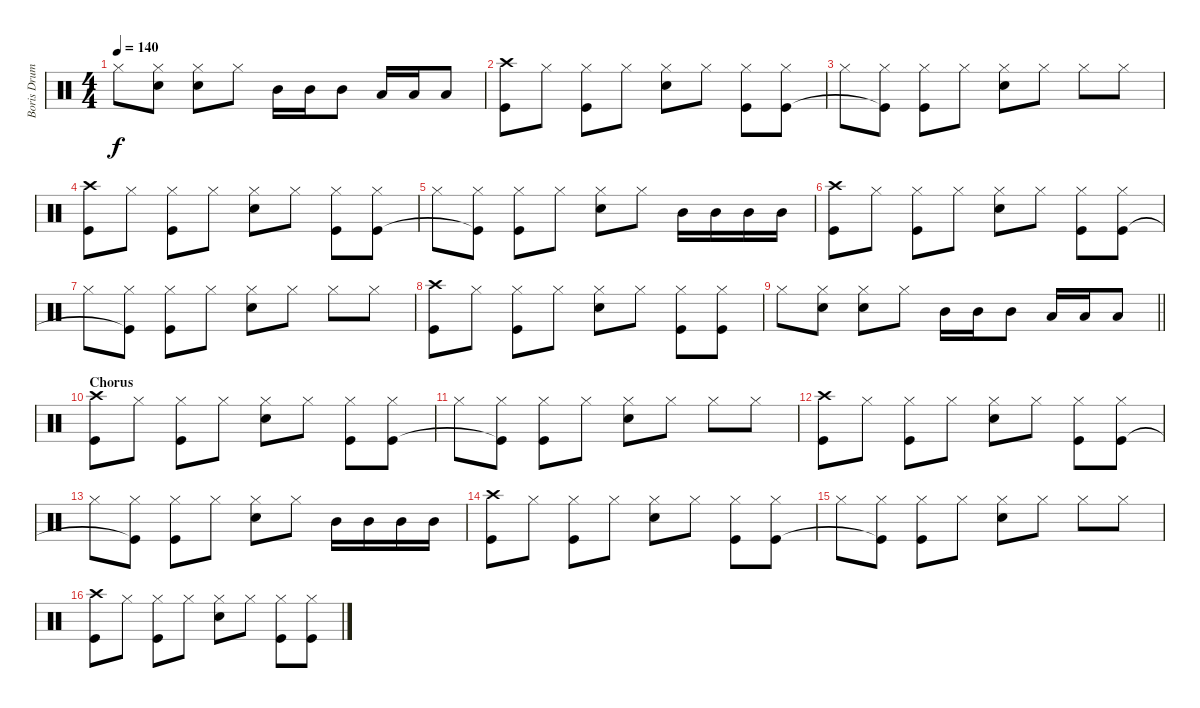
\track ("Boris Drums" "Boris Drum") {instrument percussion}
\staff {score}
\articulation defaults
\ts (4 4)
\tempo 140
\clef neutral
\ks c "Hi-Hat (closed)".8{dy f}
("Hi-Hat (closed)" "Electric Snare (hit)").8 ("Hi-Hat (closed)" "Electric Snare (hit)").8 "Hi-Hat (closed)".8 "Mid Tom (hit)".16 "Mid Tom (hit)".16 "Mid Tom (hit)".8 "Low Tom (hit)".16 "Low Tom (hit)".16 "Low Tom (hit)".8 |
("Crash high (hit)" "Kick (hit)").8 "Hi-Hat (closed)".8 ("Hi-Hat (closed)" "Kick (hit)").8 "Hi-Hat (closed)".8 ("Hi-Hat (closed)" "Electric Snare (hit)").8 "Hi-Hat (closed)".8 ("Hi-Hat (closed)" "Kick (hit)").8 ("Hi-Hat (closed)" "Kick (hit)").8 |
"Hi-Hat (closed)".8 ("Hi-Hat (closed)" "Kick (hit)"{t}).8 ("Hi-Hat (closed)" "Kick (hit)").8 "Hi-Hat (closed)".8 ("Hi-Hat (closed)" "Electric Snare (hit)").8 "Hi-Hat (closed)".8 "Hi-Hat (closed)".8 "Hi-Hat (closed)".8 |
("Crash high (hit)" "Kick (hit)").8 "Hi-Hat (closed)".8 ("Hi-Hat (closed)" "Kick (hit)").8 "Hi-Hat (closed)".8 ("Hi-Hat (closed)" "Electric Snare (hit)").8 "Hi-Hat (closed)".8 ("Hi-Hat (closed)" "Kick (hit)").8 ("Hi-Hat (closed)" "Kick (hit)").8 |
"Hi-Hat (closed)".8 ("Hi-Hat (closed)" "Kick (hit)"{t}).8 ("Hi-Hat (closed)" "Kick (hit)").8 "Hi-Hat (closed)".8 ("Hi-Hat (closed)" "Electric Snare (hit)").8 "Hi-Hat (closed)".8 "Mid Tom (hit)".16 "Mid Tom (hit)".16 "Mid Tom (hit)".16 "Mid Tom (hit)".16 |
("Crash high (hit)" "Kick (hit)").8 "Hi-Hat (closed)".8 ("Hi-Hat (closed)" "Kick (hit)").8 "Hi-Hat (closed)".8 ("Hi-Hat (closed)" "Electric Snare (hit)").8 "Hi-Hat (closed)".8 ("Hi-Hat (closed)" "Kick (hit)").8 ("Hi-Hat (closed)" "Kick (hit)").8 |
"Hi-Hat (closed)".8 ("Hi-Hat (closed)" "Kick (hit)"{t}).8 ("Hi-Hat (closed)" "Kick (hit)").8 "Hi-Hat (closed)".8 ("Hi-Hat (closed)" "Electric Snare (hit)").8 "Hi-Hat (closed)".8 "Hi-Hat (closed)".8 "Hi-Hat (closed)".8 |
("Crash high (hit)" "Kick (hit)").8 "Hi-Hat (closed)".8 ("Hi-Hat (closed)" "Kick (hit)").8 "Hi-Hat (closed)".8 ("Hi-Hat (closed)" "Electric Snare (hit)").8 "Hi-Hat (closed)".8 ("Hi-Hat (closed)" "Kick (hit)").8 ("Hi-Hat (closed)" "Kick (hit)").8 |
\barLineRight lightlight "Hi-Hat (closed)".8
("Hi-Hat (closed)" "Electric Snare (hit)").8 ("Hi-Hat (closed)" "Electric Snare (hit)").8 "Hi-Hat (closed)".8 "Mid Tom (hit)".16 "Mid Tom (hit)".16 "Mid Tom (hit)".8 "Low Tom (hit)".16 "Low Tom (hit)".16 "Low Tom (hit)".8 |
\section ("" "Chorus")
("Crash high (hit)" "Kick (hit)").8 "Hi-Hat (closed)".8 ("Hi-Hat (closed)" "Kick (hit)").8 "Hi-Hat (closed)".8 ("Hi-Hat (closed)" "Electric Snare (hit)").8 "Hi-Hat (closed)".8 ("Hi-Hat (closed)" "Kick (hit)").8 ("Hi-Hat (closed)" "Kick (hit)").8 |
"Hi-Hat (closed)".8 ("Hi-Hat (closed)" "Kick (hit)"{t}).8 ("Hi-Hat (closed)" "Kick (hit)").8 "Hi-Hat (closed)".8 ("Hi-Hat (closed)" "Electric Snare (hit)").8 "Hi-Hat (closed)".8 "Hi-Hat (closed)".8 "Hi-Hat (closed)".8 |
("Crash high (hit)" "Kick (hit)").8 "Hi-Hat (closed)".8 ("Hi-Hat (closed)" "Kick (hit)").8 "Hi-Hat (closed)".8 ("Hi-Hat (closed)" "Electric Snare (hit)").8 "Hi-Hat (closed)".8 ("Hi-Hat (closed)" "Kick (hit)").8 ("Hi-Hat (closed)" "Kick (hit)").8 |
"Hi-Hat (closed)".8 ("Hi-Hat (closed)" "Kick (hit)"{t}).8 ("Hi-Hat (closed)" "Kick (hit)").8 "Hi-Hat (closed)".8 ("Hi-Hat (closed)" "Electric Snare (hit)").8 "Hi-Hat (closed)".8 "Mid Tom (hit)".16 "Mid Tom (hit)".16 "Mid Tom (hit)".16 "Mid Tom (hit)".16 |
("Crash high (hit)" "Kick (hit)").8 "Hi-Hat (closed)".8 ("Hi-Hat (closed)" "Kick (hit)").8 "Hi-Hat (closed)".8 ("Hi-Hat (closed)" "Electric Snare (hit)").8 "Hi-Hat (closed)".8 ("Hi-Hat (closed)" "Kick (hit)").8 ("Hi-Hat (closed)" "Kick (hit)").8 |
"Hi-Hat (closed)".8 ("Hi-Hat (closed)" "Kick (hit)"{t}).8 ("Hi-Hat (closed)" "Kick (hit)").8 "Hi-Hat (closed)".8 ("Hi-Hat (closed)" "Electric Snare (hit)").8 "Hi-Hat (closed)".8 "Hi-Hat (closed)".8 "Hi-Hat (closed)".8 |
("Crash high (hit)" "Kick (hit)").8 "Hi-Hat (closed)".8 ("Hi-Hat (closed)" "Kick (hit)").8 "Hi-Hat (closed)".8 ("Hi-Hat (closed)" "Electric Snare (hit)").8 "Hi-Hat (closed)".8 ("Hi-Hat (closed)" "Kick (hit)").8 ("Hi-Hat (closed)" "Kick (hit)").8
